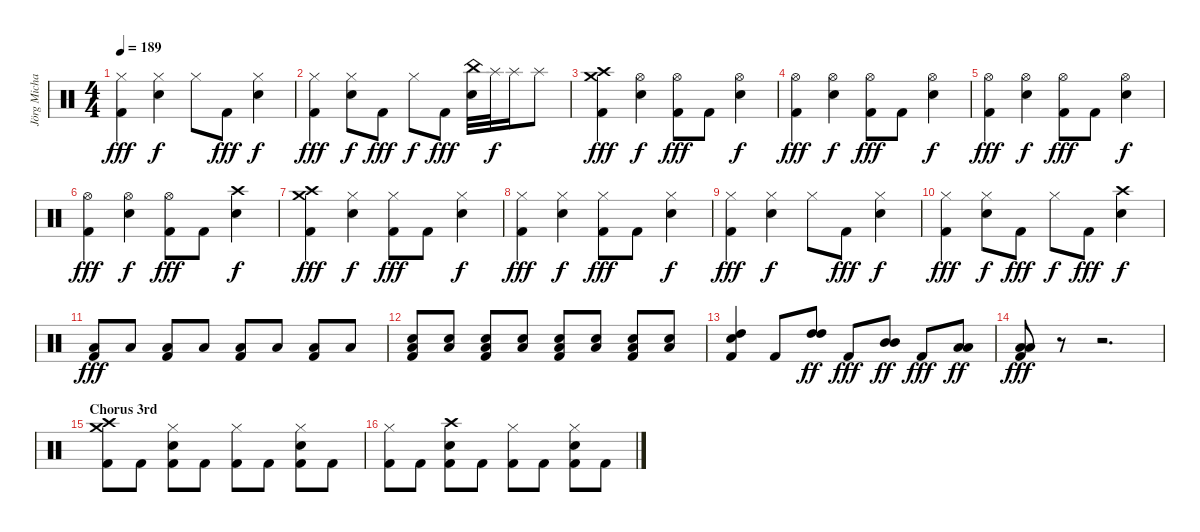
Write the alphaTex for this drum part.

\track ("Jörg Michael" "Jörg Micha") {instrument percussion}
\staff {score}
\articulation defaults
\ts (4 4)
\tempo 189
\clef neutral
\ks c
("Hi-Hat (closed)" "Kick (hit) 2").4{dy fff} ("Hi-Hat (closed)" "Electric Snare (hit)").4{dy f} "Hi-Hat (closed)".8 "Kick (hit) 2".8{dy fff} ("Hi-Hat (closed)" "Electric Snare (hit)").4{dy f} |
("Hi-Hat (closed)" "Kick (hit) 2").4{dy fff} ("Hi-Hat (closed)" "Electric Snare (hit)").8{dy f} "Kick (hit) 2".8{dy fff} "Hi-Hat (closed)".8{dy f} "Kick (hit) 2".8{dy fff} ("China (hit)" "Electric Snare (hit)").32 "Splash (hit)".32{dy f} "Splash (hit)".16 "Splash (hit)".8 |
("Crash medium (hit)" "Crash high (hit)" "Kick (hit) 2").4{dy fff} ("Hi-Hat (open)" "Electric Snare (hit)").4{dy f} ("Hi-Hat (open)" "Kick (hit) 2").8{dy fff} "Kick (hit) 2".8 ("Hi-Hat (open)" "Electric Snare (hit)").4{dy f} |
("Hi-Hat (open)" "Kick (hit) 2").4{dy fff} ("Hi-Hat (open)" "Electric Snare (hit)").4{dy f} ("Hi-Hat (open)" "Kick (hit) 2").8{dy fff} "Kick (hit) 2".8 ("Hi-Hat (open)" "Electric Snare (hit)").4{dy f} |
("Hi-Hat (open)" "Kick (hit) 2").4{dy fff} ("Hi-Hat (open)" "Electric Snare (hit)").4{dy f} ("Hi-Hat (open)" "Kick (hit) 2").8{dy fff} "Kick (hit) 2".8 ("Hi-Hat (open)" "Electric Snare (hit)").4{dy f} |
("Hi-Hat (open)" "Kick (hit) 2").4{dy fff} ("Hi-Hat (open)" "Electric Snare (hit)").4{dy f} ("Hi-Hat (open)" "Kick (hit) 2").8{dy fff} "Kick (hit) 2".8 ("Crash high (hit)" "Electric Snare (hit)").4{dy f} |
("Crash medium (hit)" "Crash high (hit)" "Kick (hit) 2").4{dy fff} ("Hi-Hat (closed)" "Electric Snare (hit)").4{dy f} ("Hi-Hat (closed)" "Kick (hit) 2").8{dy fff} "Kick (hit) 2".8 ("Hi-Hat (closed)" "Electric Snare (hit)").4{dy f} |
("Hi-Hat (closed)" "Kick (hit) 2").4{dy fff} ("Hi-Hat (closed)" "Electric Snare (hit)").4{dy f} ("Hi-Hat (closed)" "Kick (hit) 2").8{dy fff} "Kick (hit) 2".8 ("Hi-Hat (closed)" "Electric Snare (hit)").4{dy f} |
("Hi-Hat (closed)" "Kick (hit) 2").4{dy fff} ("Hi-Hat (closed)" "Electric Snare (hit)").4{dy f} "Hi-Hat (closed)".8 "Kick (hit) 2".8{dy fff} ("Hi-Hat (closed)" "Electric Snare (hit)").4{dy f} |
("Hi-Hat (closed)" "Kick (hit) 2").4{dy fff} ("Hi-Hat (closed)" "Electric Snare (hit)").8{dy f} "Kick (hit) 2".8{dy fff} "Hi-Hat (closed)".8{dy f} "Kick (hit) 2".8{dy fff} ("Crash high (hit)" "Electric Snare (hit)").4{dy f} |
("Low Floor Tom (hit)" "Kick (hit) 2").8{dy fff} "Low Floor Tom (hit)".8 ("Low Floor Tom (hit)" "Kick (hit) 2").8 "Low Floor Tom (hit)".8 ("Low Floor Tom (hit)" "Kick (hit) 2").8 "Low Floor Tom (hit)".8 ("Low Floor Tom (hit)" "Kick (hit) 2").8 "Low Floor Tom (hit)".8 |
("Electric Snare (hit)" "Low Floor Tom (hit)" "Kick (hit) 2").8 ("Electric Snare (hit)" "Low Floor Tom (hit)").8 ("Electric Snare (hit)" "Low Floor Tom (hit)" "Kick (hit) 2").8 ("Electric Snare (hit)" "Low Floor Tom (hit)").8 ("Electric Snare (hit)" "Low Floor Tom (hit)" "Kick (hit) 2").8 ("Electric Snare (hit)" "Low Floor Tom (hit)").8 ("Electric Snare (hit)" "Low Floor Tom (hit)" "Kick (hit) 2").8 ("Electric Snare (hit)" "Low Floor Tom (hit)").8 |
("Electric Snare (hit)" "High Tom (hit)" "Kick (hit) 2").4 "Kick (hit) 2".8 ("High Tom (hit)" "High Tom (hit)").8{dy ff} "Kick (hit) 2".8{dy fff} ("Mid Tom (hit)" "Mid Tom (hit)").8{dy ff} "Kick (hit) 2".8{dy fff} ("Low Tom (hit)" "Low Tom (hit)").8{dy ff} |
("Low Floor Tom (hit)" "Low Floor Tom (hit)" "Kick (hit) 2").8{dy fff} r.8 r.2{d} |
\section ("" "Chorus 3rd")
("Crash high (hit)" "Crash medium (hit)" "Kick (hit) 2").8 "Kick (hit) 2".8 ("Hi-Hat (closed)" "Electric Snare (hit)" "Kick (hit) 2").8 "Kick (hit) 2".8 ("Hi-Hat (closed)" "Kick (hit) 2").8 "Kick (hit) 2".8 ("Hi-Hat (closed)" "Electric Snare (hit)" "Kick (hit) 2").8 "Kick (hit) 2".8 |
("Hi-Hat (closed)" "Kick (hit) 2").8 "Kick (hit) 2".8 ("Crash high (hit)" "Electric Snare (hit)" "Kick (hit) 2").8 "Kick (hit) 2".8 ("Hi-Hat (closed)" "Kick (hit) 2").8 "Kick (hit) 2".8 ("Hi-Hat (closed)" "Electric Snare (hit)" "Kick (hit) 2").8 "Kick (hit) 2".8
